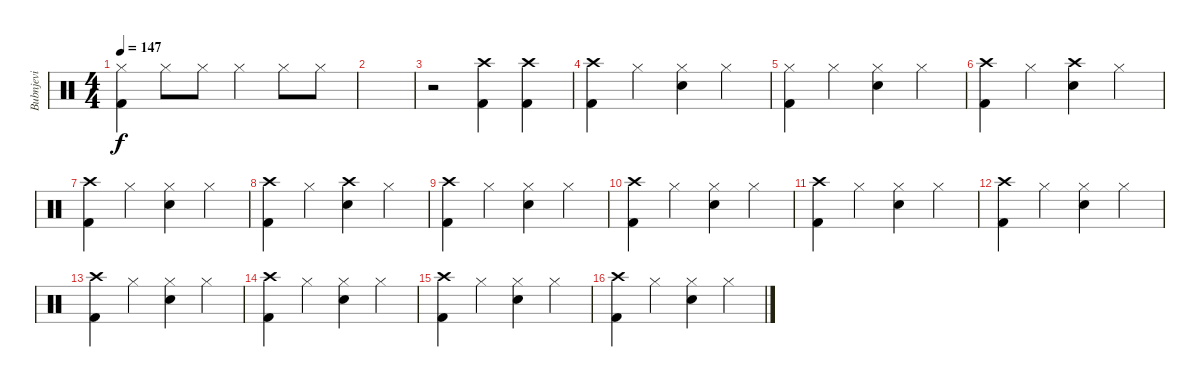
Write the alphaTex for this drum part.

\track ("Bubnjevi" "Bubnjevi") {instrument percussion}
\staff {score}
\articulation defaults
\ts (4 4)
\tempo 147
\clef neutral
\ks c
("Hi-Hat (closed)" "Kick (hit) 2").4{dy f} "Hi-Hat (closed)".8 "Hi-Hat (closed)".8 "Hi-Hat (closed)".4 "Hi-Hat (closed)".8 "Hi-Hat (closed)".8 |
|
r.2 ("Crash high (hit)" "Kick (hit) 2").4 ("Crash high (hit)" "Kick (hit) 2").4 |
("Crash high (hit)" "Kick (hit) 2").4 "Hi-Hat (closed)".4 ("Hi-Hat (closed)" "Electric Snare (hit)").4 "Hi-Hat (closed)".4 |
("Hi-Hat (closed)" "Kick (hit) 2").4 "Hi-Hat (closed)".4 ("Hi-Hat (closed)" "Electric Snare (hit)").4 "Hi-Hat (closed)".4 |
("Crash high (hit)" "Kick (hit) 2").4 "Hi-Hat (closed)".4 ("Crash high (hit)" "Electric Snare (hit)").4 "Hi-Hat (closed)".4 |
("Crash high (hit)" "Kick (hit) 2").4 "Hi-Hat (closed)".4 ("Hi-Hat (closed)" "Electric Snare (hit)").4 "Hi-Hat (closed)".4 |
("Crash high (hit)" "Kick (hit) 2").4 "Hi-Hat (closed)".4 ("Crash high (hit)" "Electric Snare (hit)").4 "Hi-Hat (closed)".4 |
("Crash high (hit)" "Kick (hit) 2").4 "Hi-Hat (closed)".4 ("Hi-Hat (closed)" "Electric Snare (hit)").4 "Hi-Hat (closed)".4 |
("Crash high (hit)" "Kick (hit) 2").4 "Hi-Hat (closed)".4 ("Hi-Hat (closed)" "Electric Snare (hit)").4 "Hi-Hat (closed)".4 |
("Crash high (hit)" "Kick (hit) 2").4 "Hi-Hat (closed)".4 ("Hi-Hat (closed)" "Electric Snare (hit)").4 "Hi-Hat (closed)".4 |
("Crash high (hit)" "Kick (hit) 2").4 "Hi-Hat (closed)".4 ("Hi-Hat (closed)" "Electric Snare (hit)").4 "Hi-Hat (closed)".4 |
("Crash high (hit)" "Kick (hit) 2").4 "Hi-Hat (closed)".4 ("Hi-Hat (closed)" "Electric Snare (hit)").4 "Hi-Hat (closed)".4 |
("Crash high (hit)" "Kick (hit) 2").4 "Hi-Hat (closed)".4 ("Hi-Hat (closed)" "Electric Snare (hit)").4 "Hi-Hat (closed)".4 |
("Crash high (hit)" "Kick (hit) 2").4 "Hi-Hat (closed)".4 ("Hi-Hat (closed)" "Electric Snare (hit)").4 "Hi-Hat (closed)".4 |
("Crash high (hit)" "Kick (hit) 2").4 "Hi-Hat (closed)".4 ("Hi-Hat (closed)" "Electric Snare (hit)").4 "Hi-Hat (closed)".4
